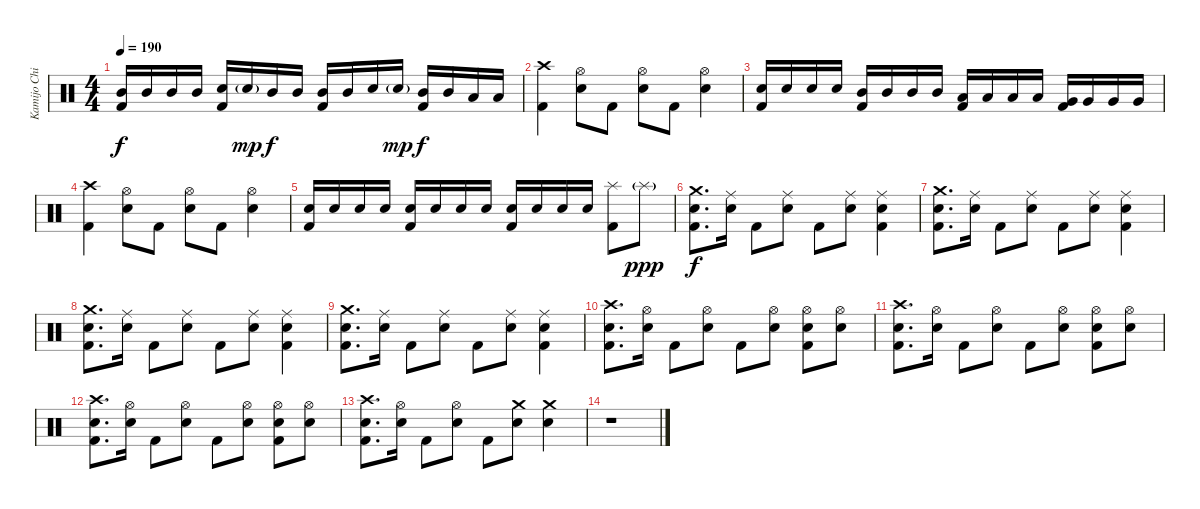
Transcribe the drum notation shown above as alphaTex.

\track ("Kamijo Chihiro" "Kamijo Chi") {instrument percussion}
\staff {score}
\articulation defaults
\ts (4 4)
\tempo 190
\clef neutral
\ks c
("Mid Tom (hit)" "Kick (hit) 2").16{dy f} "Mid Tom (hit)".16 "Mid Tom (hit)".16 "Mid Tom (hit)".16 ("Snare (hit) 2" "Kick (hit) 2").16 "Snare (hit) 2"{g}.16{dy mp} "Mid Tom (hit)".16{dy f} "Mid Tom (hit)".16 ("Mid Tom (hit)" "Kick (hit) 2").16 "Mid Tom (hit)".16 "Snare (hit) 2".16 "Snare (hit) 2"{g}.16{dy mp} ("Mid Tom (hit)" "Kick (hit) 2").16{dy f} "Mid Tom (hit)".16 "Low Tom (hit)".16 "Low Tom (hit)".16 |
("Crash high (hit)" "Kick (hit) 2").4 ("Hi-Hat (open)" "Snare (hit) 2").8 "Kick (hit) 2".8 ("Hi-Hat (open)" "Snare (hit) 2").8 "Kick (hit) 2".8 ("Hi-Hat (open)" "Snare (hit) 2").4 |
("Snare (hit) 2" "Kick (hit) 2").16 "Snare (hit) 2".16 "Snare (hit) 2".16 "Snare (hit) 2".16 ("Mid Tom (hit)" "Kick (hit) 2").16 "Mid Tom (hit)".16 "Mid Tom (hit)".16 "Mid Tom (hit)".16 ("Low Tom (hit)" "Kick (hit) 2").16 "Low Tom (hit)".16 "Low Tom (hit)".16 "Low Tom (hit)".16 ("Very Low Tom (hit)" "Kick (hit) 2").16 "Very Low Tom (hit)".16 "Very Low Tom (hit)".16 "Very Low Tom (hit)".16 |
("Crash high (hit)" "Kick (hit) 2").4 ("Hi-Hat (open)" "Snare (hit) 2").8 "Kick (hit) 2".8 ("Hi-Hat (open)" "Snare (hit) 2").8 "Kick (hit) 2".8 ("Hi-Hat (open)" "Snare (hit) 2").4 |
("Snare (hit) 2" "Kick (hit) 2").16 "Snare (hit) 2".16 "Snare (hit) 2".16 "Snare (hit) 2".16 ("Snare (hit) 2" "Kick (hit) 2").16 "Snare (hit) 2".16 "Snare (hit) 2".16 "Snare (hit) 2".16 ("Snare (hit) 2" "Kick (hit) 2").16 "Snare (hit) 2".16 "Snare (hit) 2".16 "Snare (hit) 2".16 ("Splash (hit)" "Kick (hit) 2").8 "Splash (hit)"{g}.8{dy ppp} |
("Crash medium (hit)" "Snare (hit) 2" "Kick (hit) 2").8{d dy f} ("Ride (middle)" "Snare (hit) 2").16 "Kick (hit) 2".8 ("Ride (middle)" "Snare (hit) 2").8 "Kick (hit) 2".8 ("Ride (middle)" "Snare (hit) 2").8 ("Ride (middle)" "Snare (hit) 2" "Kick (hit) 2").4 |
("Crash medium (hit)" "Snare (hit) 2" "Kick (hit) 2").8{d} ("Ride (middle)" "Snare (hit) 2").16 "Kick (hit) 2".8 ("Ride (middle)" "Snare (hit) 2").8 "Kick (hit) 2".8 ("Ride (middle)" "Snare (hit) 2").8 ("Ride (middle)" "Snare (hit) 2" "Kick (hit) 2").4 |
("Crash medium (hit)" "Snare (hit) 2" "Kick (hit) 2").8{d} ("Ride (middle)" "Snare (hit) 2").16 "Kick (hit) 2".8 ("Ride (middle)" "Snare (hit) 2").8 "Kick (hit) 2".8 ("Ride (middle)" "Snare (hit) 2").8 ("Ride (middle)" "Snare (hit) 2" "Kick (hit) 2").4 |
("Crash medium (hit)" "Snare (hit) 2" "Kick (hit) 2").8{d} ("Ride (middle)" "Snare (hit) 2").16 "Kick (hit) 2".8 ("Ride (middle)" "Snare (hit) 2").8 "Kick (hit) 2".8 ("Ride (middle)" "Snare (hit) 2").8 ("Ride (middle)" "Snare (hit) 2" "Kick (hit) 2").4 |
("Crash high (hit)" "Snare (hit) 2" "Kick (hit) 2").8{d} ("Hi-Hat (open)" "Snare (hit) 2").16 "Kick (hit) 2".8 ("Hi-Hat (open)" "Snare (hit) 2").8 "Kick (hit) 2".8 ("Hi-Hat (open)" "Snare (hit) 2").8 ("Hi-Hat (open)" "Snare (hit) 2" "Kick (hit) 2").8 ("Hi-Hat (open)" "Snare (hit) 2").8 |
("Crash high (hit)" "Snare (hit) 2" "Kick (hit) 2").8{d} ("Hi-Hat (open)" "Snare (hit) 2").16 "Kick (hit) 2".8 ("Hi-Hat (open)" "Snare (hit) 2").8 "Kick (hit) 2".8 ("Hi-Hat (open)" "Snare (hit) 2").8 ("Hi-Hat (open)" "Snare (hit) 2" "Kick (hit) 2").8 ("Hi-Hat (open)" "Snare (hit) 2").8 |
("Crash high (hit)" "Snare (hit) 2" "Kick (hit) 2").8{d} ("Hi-Hat (open)" "Snare (hit) 2").16 "Kick (hit) 2".8 ("Hi-Hat (open)" "Snare (hit) 2").8 "Kick (hit) 2".8 ("Hi-Hat (open)" "Snare (hit) 2").8 ("Hi-Hat (open)" "Snare (hit) 2" "Kick (hit) 2").8 ("Hi-Hat (open)" "Snare (hit) 2").8 |
("Crash high (hit)" "Snare (hit) 2" "Kick (hit) 2").8{d} ("Hi-Hat (open)" "Snare (hit) 2").16 "Kick (hit) 2".8 ("Hi-Hat (open)" "Snare (hit) 2").8 "Kick (hit) 2".8 ("Crash medium (hit)" "Snare (hit) 2").8 ("Crash medium (hit)" "Snare (hit) 2").4 |
r.1
